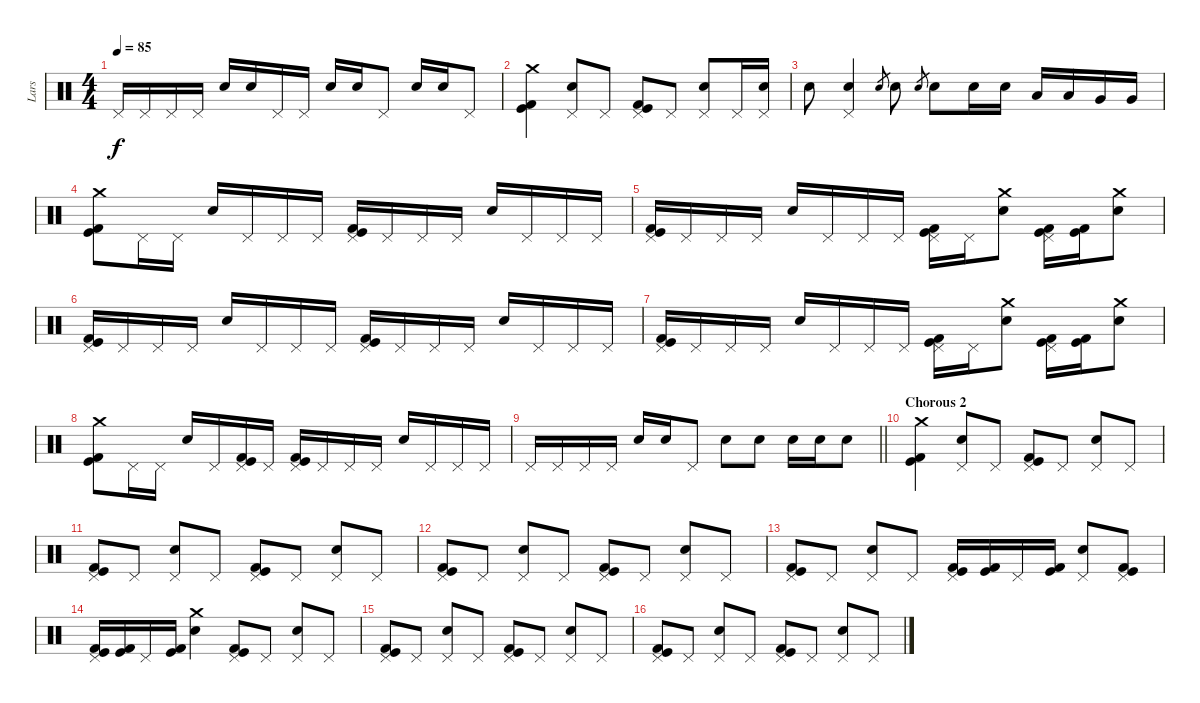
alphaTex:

\track ("Lars" "Lars") {instrument percussion}
\staff {score}
\articulation defaults
\ts (4 4)
\tempo 85
\clef neutral
\ks c "Pedal Hi-Hat (hit)".16{dy f} "Pedal Hi-Hat (hit)".16 "Pedal Hi-Hat (hit)".16 "Pedal Hi-Hat (hit)".16 "Electric Snare (hit)".16 "Electric Snare (hit)".16 "Pedal Hi-Hat (hit)".16 "Pedal Hi-Hat (hit)".16 "Electric Snare (hit)".16 "Electric Snare (hit)".16 "Pedal Hi-Hat (hit)".8 "Electric Snare (hit)".16 "Electric Snare (hit)".16 "Pedal Hi-Hat (hit)".8
|
("Crash medium (hit)" "Kick (hit)" "Kick (hit) 2").4 ("Pedal Hi-Hat (hit)" "Electric Snare (hit)").8 "Pedal Hi-Hat (hit)".8 ("Pedal Hi-Hat (hit)" "Kick (hit)" "Kick (hit) 2").8 "Pedal Hi-Hat (hit)".8 ("Pedal Hi-Hat (hit)" "Electric Snare (hit)").8 "Pedal Hi-Hat (hit)".16 ("Pedal Hi-Hat (hit)" "Electric Snare (hit)").16 |
"Electric Snare (hit)".8 ("Pedal Hi-Hat (hit)" "Electric Snare (hit)").4 "Electric Snare (hit)".8{gr} "Electric Snare (hit)".8 "Electric Snare (hit)".8{gr} "Electric Snare (hit)".8 "Electric Snare (hit)".16 "Electric Snare (hit)".16 "Low Tom (hit)".16 "Low Tom (hit)".16 "Very Low Tom (hit)".16 "Very Low Tom (hit)".16 |
("Crash medium (hit)" "Kick (hit)" "Kick (hit) 2").8 "Pedal Hi-Hat (hit)".16 "Pedal Hi-Hat (hit)".16 "Electric Snare (hit)".16 "Pedal Hi-Hat (hit)".16 "Pedal Hi-Hat (hit)".16 "Pedal Hi-Hat (hit)".16 ("Pedal Hi-Hat (hit)" "Kick (hit)" "Kick (hit) 2").16 "Pedal Hi-Hat (hit)".16 "Pedal Hi-Hat (hit)".16 "Pedal Hi-Hat (hit)".16 "Electric Snare (hit)".16 "Pedal Hi-Hat (hit)".16 "Pedal Hi-Hat (hit)".16 "Pedal Hi-Hat (hit)".16 |
("Pedal Hi-Hat (hit)" "Kick (hit)" "Kick (hit) 2").16 "Pedal Hi-Hat (hit)".16 "Pedal Hi-Hat (hit)".16 "Pedal Hi-Hat (hit)".16 "Electric Snare (hit)".16 "Pedal Hi-Hat (hit)".16 "Pedal Hi-Hat (hit)".16 "Pedal Hi-Hat (hit)".16 ("Pedal Hi-Hat (hit)" "Kick (hit)" "Kick (hit) 2").16 "Pedal Hi-Hat (hit)".16 ("Crash medium (hit)" "Electric Snare (hit)").8 ("Pedal Hi-Hat (hit)" "Kick (hit)" "Kick (hit) 2").16 ("Kick (hit)" "Kick (hit) 2").16 ("Crash medium (hit)" "Electric Snare (hit)").8 |
("Pedal Hi-Hat (hit)" "Kick (hit)" "Kick (hit) 2").16 "Pedal Hi-Hat (hit)".16 "Pedal Hi-Hat (hit)".16 "Pedal Hi-Hat (hit)".16 "Electric Snare (hit)".16 "Pedal Hi-Hat (hit)".16 "Pedal Hi-Hat (hit)".16 "Pedal Hi-Hat (hit)".16 ("Pedal Hi-Hat (hit)" "Kick (hit)" "Kick (hit) 2").16 "Pedal Hi-Hat (hit)".16 "Pedal Hi-Hat (hit)".16 "Pedal Hi-Hat (hit)".16 "Electric Snare (hit)".16 "Pedal Hi-Hat (hit)".16 "Pedal Hi-Hat (hit)".16 "Pedal Hi-Hat (hit)".16 |
("Pedal Hi-Hat (hit)" "Kick (hit)" "Kick (hit) 2").16 "Pedal Hi-Hat (hit)".16 "Pedal Hi-Hat (hit)".16 "Pedal Hi-Hat (hit)".16 "Electric Snare (hit)".16 "Pedal Hi-Hat (hit)".16 "Pedal Hi-Hat (hit)".16 "Pedal Hi-Hat (hit)".16 ("Pedal Hi-Hat (hit)" "Kick (hit)" "Kick (hit) 2").16 "Pedal Hi-Hat (hit)".16 ("Crash medium (hit)" "Electric Snare (hit)").8 ("Pedal Hi-Hat (hit)" "Kick (hit)" "Kick (hit) 2").16 ("Kick (hit)" "Kick (hit) 2").16 ("Crash medium (hit)" "Electric Snare (hit)").8 |
("Crash medium (hit)" "Kick (hit)" "Kick (hit) 2").8 "Pedal Hi-Hat (hit)".16 "Pedal Hi-Hat (hit)".16 "Electric Snare (hit)".16 "Pedal Hi-Hat (hit)".16 ("Pedal Hi-Hat (hit)" "Kick (hit)" "Kick (hit) 2").16 "Pedal Hi-Hat (hit)".16 ("Pedal Hi-Hat (hit)" "Kick (hit)" "Kick (hit) 2").16 "Pedal Hi-Hat (hit)".16 "Pedal Hi-Hat (hit)".16 "Pedal Hi-Hat (hit)".16 "Electric Snare (hit)".16 "Pedal Hi-Hat (hit)".16 "Pedal Hi-Hat (hit)".16 "Pedal Hi-Hat (hit)".16 |
\barLineRight lightlight "Pedal Hi-Hat (hit)".16 "Pedal Hi-Hat (hit)".16 "Pedal Hi-Hat (hit)".16 "Pedal Hi-Hat (hit)".16 "Electric Snare (hit)".16 "Electric Snare (hit)".16 "Pedal Hi-Hat (hit)".8 "Electric Snare (hit)".8 "Electric Snare (hit)".8 "Electric Snare (hit)".16 "Electric Snare (hit)".16 "Electric Snare (hit)".8
|
\section ("" "Chorous 2")
("Crash medium (hit)" "Kick (hit)" "Kick (hit) 2").4 ("Pedal Hi-Hat (hit)" "Electric Snare (hit)").8 "Pedal Hi-Hat (hit)".8 ("Pedal Hi-Hat (hit)" "Kick (hit)" "Kick (hit) 2").8 "Pedal Hi-Hat (hit)".8 ("Pedal Hi-Hat (hit)" "Electric Snare (hit)").8 "Pedal Hi-Hat (hit)".8 |
("Pedal Hi-Hat (hit)" "Kick (hit)" "Kick (hit) 2").8 "Pedal Hi-Hat (hit)".8 ("Pedal Hi-Hat (hit)" "Electric Snare (hit)").8 "Pedal Hi-Hat (hit)".8 ("Pedal Hi-Hat (hit)" "Kick (hit)" "Kick (hit) 2").8 "Pedal Hi-Hat (hit)".8 ("Pedal Hi-Hat (hit)" "Electric Snare (hit)").8 "Pedal Hi-Hat (hit)".8 |
("Pedal Hi-Hat (hit)" "Kick (hit)" "Kick (hit) 2").8 "Pedal Hi-Hat (hit)".8 ("Pedal Hi-Hat (hit)" "Electric Snare (hit)").8 "Pedal Hi-Hat (hit)".8 ("Pedal Hi-Hat (hit)" "Kick (hit)" "Kick (hit) 2").8 "Pedal Hi-Hat (hit)".8 ("Pedal Hi-Hat (hit)" "Electric Snare (hit)").8 "Pedal Hi-Hat (hit)".8 |
("Pedal Hi-Hat (hit)" "Kick (hit)" "Kick (hit) 2").8 "Pedal Hi-Hat (hit)".8 ("Pedal Hi-Hat (hit)" "Electric Snare (hit)").8 "Pedal Hi-Hat (hit)".8 ("Pedal Hi-Hat (hit)" "Kick (hit)" "Kick (hit) 2").16 ("Kick (hit)" "Kick (hit) 2").16 "Pedal Hi-Hat (hit)".16 ("Kick (hit)" "Kick (hit) 2").16 ("Pedal Hi-Hat (hit)" "Electric Snare (hit)").8 ("Pedal Hi-Hat (hit)" "Kick (hit)" "Kick (hit) 2").8 |
("Pedal Hi-Hat (hit)" "Kick (hit)" "Kick (hit) 2").16 ("Kick (hit)" "Kick (hit) 2").16 "Pedal Hi-Hat (hit)".16 ("Kick (hit)" "Kick (hit) 2").16 ("Crash medium (hit)" "Electric Snare (hit)").4 ("Pedal Hi-Hat (hit)" "Kick (hit)" "Kick (hit) 2").8 "Pedal Hi-Hat (hit)".8 ("Pedal Hi-Hat (hit)" "Electric Snare (hit)").8 "Pedal Hi-Hat (hit)".8 |
("Pedal Hi-Hat (hit)" "Kick (hit)" "Kick (hit) 2").8 "Pedal Hi-Hat (hit)".8 ("Pedal Hi-Hat (hit)" "Electric Snare (hit)").8 "Pedal Hi-Hat (hit)".8 ("Pedal Hi-Hat (hit)" "Kick (hit)" "Kick (hit) 2").8 "Pedal Hi-Hat (hit)".8 ("Pedal Hi-Hat (hit)" "Electric Snare (hit)").8 "Pedal Hi-Hat (hit)".8 |
("Pedal Hi-Hat (hit)" "Kick (hit)" "Kick (hit) 2").8 "Pedal Hi-Hat (hit)".8 ("Pedal Hi-Hat (hit)" "Electric Snare (hit)").8 "Pedal Hi-Hat (hit)".8 ("Pedal Hi-Hat (hit)" "Kick (hit)" "Kick (hit) 2").8 "Pedal Hi-Hat (hit)".8 ("Pedal Hi-Hat (hit)" "Electric Snare (hit)").8 "Pedal Hi-Hat (hit)".8
